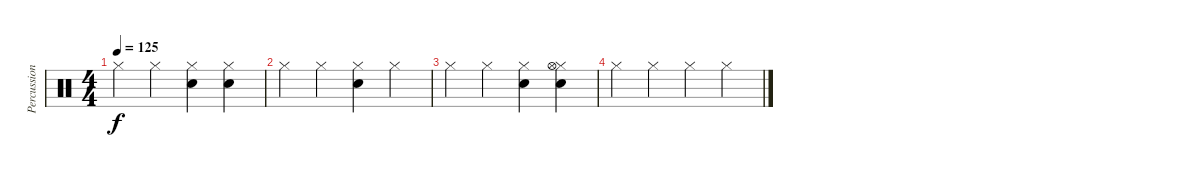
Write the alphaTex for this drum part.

\track ("Percussion" "Percussion") {instrument percussion}
\staff {score}
\articulation defaults
\ts (4 4)
\tempo 125
\clef neutral
\ks c "Hi-Hat (closed)".4{dy f} "Hi-Hat (closed)".4
("Hi-Hat (closed)" "Snare (hit) 2").4 ("Hi-Hat (closed)" "Snare (hit) 2").4 |
"Hi-Hat (closed)".4 "Hi-Hat (closed)".4 ("Hi-Hat (closed)" "Snare (hit) 2").4 "Hi-Hat (closed)".4 |
"Hi-Hat (closed)".4 "Hi-Hat (closed)".4 ("Hi-Hat (closed)" "Snare (hit) 2").4 ("Hi-Hat (closed)" "Snare (hit) 2" "Hi-Hat (open)").4 |
"Hi-Hat (closed)".4 "Hi-Hat (closed)".4 "Hi-Hat (closed)".4 "Hi-Hat (closed)".4
